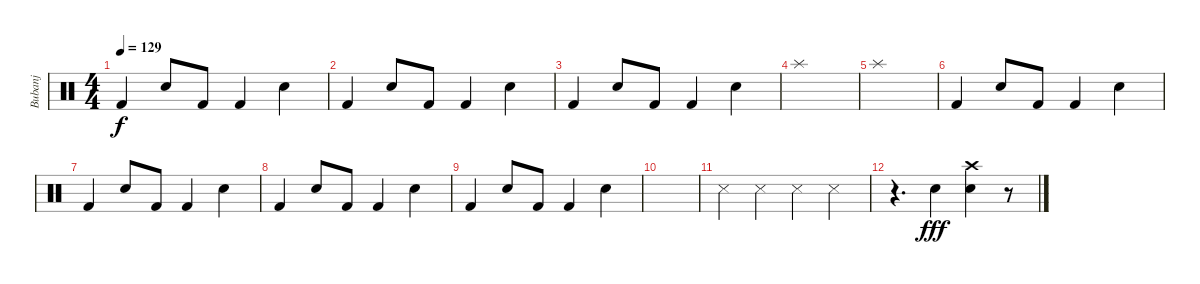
\track ("Bubanj" "Bubanj") {instrument percussion}
\staff {score}
\articulation defaults
\ts (4 4)
\tempo 129
\clef neutral
\ks c "Kick (hit) 2".4{dy f} "Electric Snare (hit)".8 "Kick (hit) 2".8 "Kick (hit) 2".4 "Electric Snare (hit)".4
|
"Kick (hit) 2".4 "Electric Snare (hit)".8 "Kick (hit) 2".8 "Kick (hit) 2".4 "Electric Snare (hit)".4 |
"Kick (hit) 2".4 "Electric Snare (hit)".8 "Kick (hit) 2".8 "Kick (hit) 2".4 "Electric Snare (hit)".4 |
"Splash (hit)".1 |
"Splash (hit)".1 |
"Kick (hit) 2".4 "Electric Snare (hit)".8 "Kick (hit) 2".8 "Kick (hit) 2".4 "Electric Snare (hit)".4 |
"Kick (hit) 2".4 "Electric Snare (hit)".8 "Kick (hit) 2".8 "Kick (hit) 2".4 "Electric Snare (hit)".4 |
"Kick (hit) 2".4 "Electric Snare (hit)".8 "Kick (hit) 2".8 "Kick (hit) 2".4 "Electric Snare (hit)".4 |
"Kick (hit) 2".4 "Electric Snare (hit)".8 "Kick (hit) 2".8 "Kick (hit) 2".4 "Electric Snare (hit)".4 |
|
"Snare (side stick) 3".4 "Snare (side stick) 3".4 "Snare (side stick) 3".4 "Snare (side stick) 3".4 |
r.4{d} "Electric Snare (hit)".4{dy fff} ("Electric Snare (hit)" "Crash high (hit)").4 r.8
